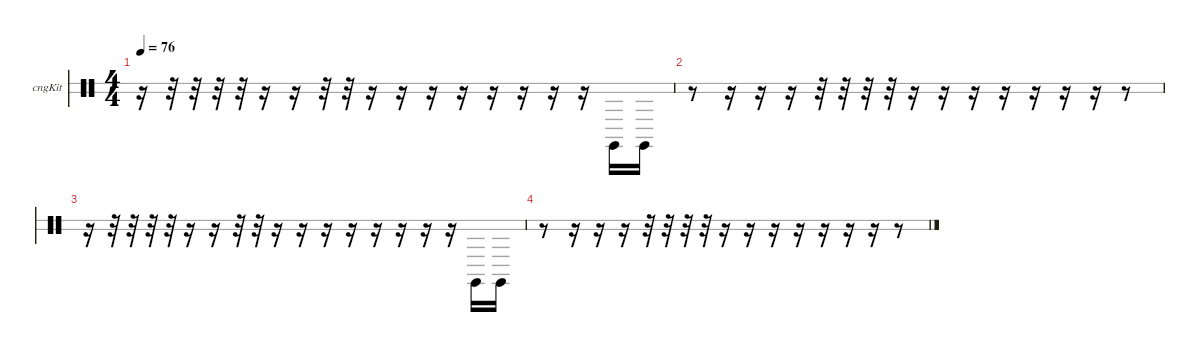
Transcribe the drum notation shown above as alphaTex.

\hideDynamics
\bracketExtendMode nobrackets
\firstSystemTrackNameOrientation horizontal
\otherSystemsTrackNameOrientation horizontal
\track ("Congas" "cngKit") {instrument percussion}
\staff {score 2}
\articulation defaults
\ts (4 4)
\tempo 76
\clef neutral
\ks c
r.16{dy f beam Down} r.32{beam Down} r.32{beam Down} r.32{beam Down} r.32{beam Down} r.16{beam Down} r.16{beam Down} r.32{beam Down} r.32{beam Down} r.16{beam Down} r.16{beam Down} r.16{beam Down} r.16{beam Down} r.16{beam Down} r.16{beam Down} r.16{beam Down} r.16{beam Down} "Conga high (hit)".16{beam Down} "Conga high (hit)".16{beam Down} |
r.8{beam Down} r.16{beam Down} r.16{beam Down} r.16{beam Down} r.32{beam Down} r.32{beam Down} r.32{beam Down} r.32{beam Down} r.16{beam Down} r.16{beam Down} r.16{beam Down} r.16{beam Down} r.16{beam Down} r.16{beam Down} r.16{beam Down} r.8{beam Down} |
r.16{beam Down} r.32{beam Down} r.32{beam Down} r.32{beam Down} r.32{beam Down} r.16{beam Down} r.16{beam Down} r.32{beam Down} r.32{beam Down} r.16{beam Down} r.16{beam Down} r.16{beam Down} r.16{beam Down} r.16{beam Down} r.16{beam Down} r.16{beam Down} r.16{beam Down} "Conga high (hit)".16{beam Down} "Conga high (hit)".16{beam Down} |
r.8{beam Down} r.16{beam Down} r.16{beam Down} r.16{beam Down} r.32{beam Down} r.32{beam Down} r.32{beam Down} r.32{beam Down} r.16{beam Down} r.16{beam Down} r.16{beam Down} r.16{beam Down} r.16{beam Down} r.16{beam Down} r.16{beam Down} r.8{beam Down}
